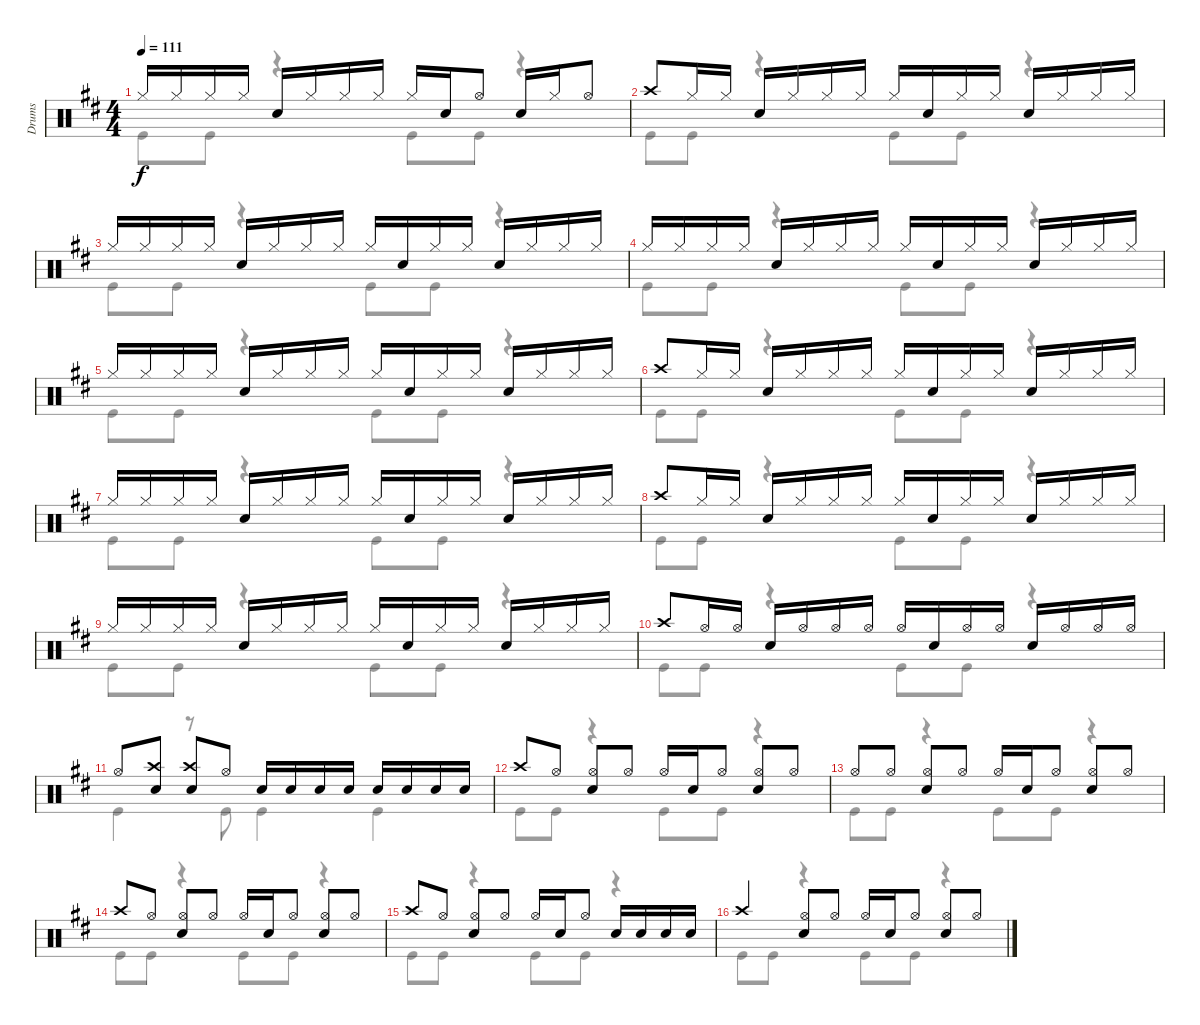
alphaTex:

\track ("Drums" "Drums") {instrument percussion}
\staff {score}
\articulation defaults
\voice
\ts (4 4)
\tempo 111
\clef neutral
\ks d "Hi-Hat (closed)".16{dy f beam Up} "Hi-Hat (closed)".16{beam Up} "Hi-Hat (closed)".16{beam Up} "Hi-Hat (closed)".16{beam Up} "Snare (hit) 2".16{beam Up} "Hi-Hat (closed)".16{beam Up} "Hi-Hat (closed)".16{beam Up} "Hi-Hat (closed)".16{beam Up} "Hi-Hat (closed)".16{beam Up} "Snare (hit) 2".16{beam Up} "Hi-Hat (open)".8{beam Up} "Snare (hit) 2".16{beam Up} "Hi-Hat (closed)".16{beam Up} "Hi-Hat (open)".8{beam Up}
|
"Crash high (hit)".8{beam Up} "Hi-Hat (closed)".16{beam Up} "Hi-Hat (closed)".16{beam Up} "Snare (hit) 2".16{beam Up} "Hi-Hat (closed)".16{beam Up} "Hi-Hat (closed)".16{beam Up} "Hi-Hat (closed)".16{beam Up} "Hi-Hat (closed)".16{beam Up} "Snare (hit) 2".16{beam Up} "Hi-Hat (closed)".16{beam Up} "Hi-Hat (closed)".16{beam Up} "Snare (hit) 2".16{beam Up} "Hi-Hat (closed)".16{beam Up} "Hi-Hat (closed)".16{beam Up} "Hi-Hat (closed)".16{beam Up} |
"Hi-Hat (closed)".16{beam Up} "Hi-Hat (closed)".16{beam Up} "Hi-Hat (closed)".16{beam Up} "Hi-Hat (closed)".16{beam Up} "Snare (hit) 2".16{beam Up} "Hi-Hat (closed)".16{beam Up} "Hi-Hat (closed)".16{beam Up} "Hi-Hat (closed)".16{beam Up} "Hi-Hat (closed)".16{beam Up} "Snare (hit) 2".16{beam Up} "Hi-Hat (closed)".16{beam Up} "Hi-Hat (closed)".16{beam Up} "Snare (hit) 2".16{beam Up} "Hi-Hat (closed)".16{beam Up} "Hi-Hat (closed)".16{beam Up} "Hi-Hat (closed)".16{beam Up} |
"Hi-Hat (closed)".16{beam Up} "Hi-Hat (closed)".16{beam Up} "Hi-Hat (closed)".16{beam Up} "Hi-Hat (closed)".16{beam Up} "Snare (hit) 2".16{beam Up} "Hi-Hat (closed)".16{beam Up} "Hi-Hat (closed)".16{beam Up} "Hi-Hat (closed)".16{beam Up} "Hi-Hat (closed)".16{beam Up} "Snare (hit) 2".16{beam Up} "Hi-Hat (closed)".16{beam Up} "Hi-Hat (closed)".16{beam Up} "Snare (hit) 2".16{beam Up} "Hi-Hat (closed)".16{beam Up} "Hi-Hat (closed)".16{beam Up} "Hi-Hat (closed)".16{beam Up} |
"Hi-Hat (closed)".16{beam Up} "Hi-Hat (closed)".16{beam Up} "Hi-Hat (closed)".16{beam Up} "Hi-Hat (closed)".16{beam Up} "Snare (hit) 2".16{beam Up} "Hi-Hat (closed)".16{beam Up} "Hi-Hat (closed)".16{beam Up} "Hi-Hat (closed)".16{beam Up} "Hi-Hat (closed)".16{beam Up} "Snare (hit) 2".16{beam Up} "Hi-Hat (closed)".16{beam Up} "Hi-Hat (closed)".16{beam Up} "Snare (hit) 2".16{beam Up} "Hi-Hat (closed)".16{beam Up} "Hi-Hat (closed)".16{beam Up} "Hi-Hat (closed)".16{beam Up} |
"Crash high (hit)".8{beam Up} "Hi-Hat (closed)".16{beam Up} "Hi-Hat (closed)".16{beam Up} "Snare (hit) 2".16{beam Up} "Hi-Hat (closed)".16{beam Up} "Hi-Hat (closed)".16{beam Up} "Hi-Hat (closed)".16{beam Up} "Hi-Hat (closed)".16{beam Up} "Snare (hit) 2".16{beam Up} "Hi-Hat (closed)".16{beam Up} "Hi-Hat (closed)".16{beam Up} "Snare (hit) 2".16{beam Up} "Hi-Hat (closed)".16{beam Up} "Hi-Hat (closed)".16{beam Up} "Hi-Hat (closed)".16{beam Up} |
"Hi-Hat (closed)".16{beam Up} "Hi-Hat (closed)".16{beam Up} "Hi-Hat (closed)".16{beam Up} "Hi-Hat (closed)".16{beam Up} "Snare (hit) 2".16{beam Up} "Hi-Hat (closed)".16{beam Up} "Hi-Hat (closed)".16{beam Up} "Hi-Hat (closed)".16{beam Up} "Hi-Hat (closed)".16{beam Up} "Snare (hit) 2".16{beam Up} "Hi-Hat (closed)".16{beam Up} "Hi-Hat (closed)".16{beam Up} "Snare (hit) 2".16{beam Up} "Hi-Hat (closed)".16{beam Up} "Hi-Hat (closed)".16{beam Up} "Hi-Hat (closed)".16{beam Up} |
"Crash high (hit)".8{beam Up} "Hi-Hat (closed)".16{beam Up} "Hi-Hat (closed)".16{beam Up} "Snare (hit) 2".16{beam Up} "Hi-Hat (closed)".16{beam Up} "Hi-Hat (closed)".16{beam Up} "Hi-Hat (closed)".16{beam Up} "Hi-Hat (closed)".16{beam Up} "Snare (hit) 2".16{beam Up} "Hi-Hat (closed)".16{beam Up} "Hi-Hat (closed)".16{beam Up} "Snare (hit) 2".16{beam Up} "Hi-Hat (closed)".16{beam Up} "Hi-Hat (closed)".16{beam Up} "Hi-Hat (closed)".16{beam Up} |
"Hi-Hat (closed)".16{beam Up} "Hi-Hat (closed)".16{beam Up} "Hi-Hat (closed)".16{beam Up} "Hi-Hat (closed)".16{beam Up} "Snare (hit) 2".16{beam Up} "Hi-Hat (closed)".16{beam Up} "Hi-Hat (closed)".16{beam Up} "Hi-Hat (closed)".16{beam Up} "Hi-Hat (closed)".16{beam Up} "Snare (hit) 2".16{beam Up} "Hi-Hat (closed)".16{beam Up} "Hi-Hat (closed)".16{beam Up} "Snare (hit) 2".16{beam Up} "Hi-Hat (closed)".16{beam Up} "Hi-Hat (closed)".16{beam Up} "Hi-Hat (closed)".16{beam Up} |
"Crash high (hit)".8{beam Up} "Hi-Hat (open)".16{beam Up} "Hi-Hat (open)".16{beam Up} "Snare (hit) 2".16{beam Up} "Hi-Hat (open)".16{beam Up} "Hi-Hat (open)".16{beam Up} "Hi-Hat (open)".16{beam Up} "Hi-Hat (open)".16{beam Up} "Snare (hit) 2".16{beam Up} "Hi-Hat (open)".16{beam Up} "Hi-Hat (open)".16{beam Up} "Snare (hit) 2".16{beam Up} "Hi-Hat (open)".16{beam Up} "Hi-Hat (open)".16{beam Up} "Hi-Hat (open)".16{beam Up} |
"Hi-Hat (open)".8{beam Up} ("Snare (hit) 2" "Crash high (hit)").8{beam Up} ("Crash high (hit)" "Snare (hit) 2").8{beam Up} "Hi-Hat (open)".8{beam Up} "Snare (hit) 2".16{beam Up} "Snare (hit) 2".16{beam Up} "Snare (hit) 2".16{beam Up} "Snare (hit) 2".16{beam Up} "Snare (hit) 2".16{beam Up} "Snare (hit) 2".16{beam Up} "Snare (hit) 2".16{beam Up} "Snare (hit) 2".16{beam Up} |
"Crash high (hit)".8{beam Up} "Hi-Hat (open)".8{beam Up} ("Snare (hit) 2" "Hi-Hat (open)").8{beam Up} "Hi-Hat (open)".8{beam Up} "Hi-Hat (open)".16{beam Up} "Snare (hit) 2".16{beam Up} "Hi-Hat (open)".8{beam Up} ("Hi-Hat (open)" "Snare (hit) 2").8{beam Up} "Hi-Hat (open)".8{beam Up} |
"Hi-Hat (open)".8{beam Up} "Hi-Hat (open)".8{beam Up} ("Snare (hit) 2" "Hi-Hat (open)").8{beam Up} "Hi-Hat (open)".8{beam Up} "Hi-Hat (open)".16{beam Up} "Snare (hit) 2".16{beam Up} "Hi-Hat (open)".8{beam Up} ("Hi-Hat (open)" "Snare (hit) 2").8{beam Up} "Hi-Hat (open)".8{beam Up} |
"Crash high (hit)".8{beam Up} "Hi-Hat (open)".8{beam Up} ("Snare (hit) 2" "Hi-Hat (open)").8{beam Up} "Hi-Hat (open)".8{beam Up} "Hi-Hat (open)".16{beam Up} "Snare (hit) 2".16{beam Up} "Hi-Hat (open)".8{beam Up} ("Hi-Hat (open)" "Snare (hit) 2").8{beam Up} "Hi-Hat (open)".8{beam Up} |
"Crash high (hit)".8{beam Up} "Hi-Hat (open)".8{beam Up} ("Snare (hit) 2" "Hi-Hat (open)").8{beam Up} "Hi-Hat (open)".8{beam Up} "Hi-Hat (open)".16{beam Up} "Snare (hit) 2".16{beam Up} "Hi-Hat (open)".8{beam Up} "Snare (hit) 2".16{beam Up} "Snare (hit) 2".16{beam Up} "Snare (hit) 2".16{beam Up} "Snare (hit) 2".16{beam Up} |
"Crash high (hit)".4{beam Up} ("Snare (hit) 2" "Hi-Hat (open)").8{beam Up} "Hi-Hat (open)".8{beam Up} "Hi-Hat (open)".16{beam Up} "Snare (hit) 2".16{beam Up} "Hi-Hat (open)".8{beam Up} ("Hi-Hat (open)" "Snare (hit) 2").8{beam Up} "Hi-Hat (open)".8{beam Up}
\voice
\clef neutral
\ottava regular
\simile none
\ks d "Kick (hit)".8{dy f} "Kick (hit)".8
r.4 "Kick (hit)".8 "Kick (hit)".8 r.4 |
"Kick (hit)".8 "Kick (hit)".8 r.4 "Kick (hit)".8 "Kick (hit)".8 r.4 |
"Kick (hit)".8 "Kick (hit)".8 r.4 "Kick (hit)".8 "Kick (hit)".8 r.4 |
"Kick (hit)".8 "Kick (hit)".8 r.4 "Kick (hit)".8 "Kick (hit)".8 r.4 |
"Kick (hit)".8 "Kick (hit)".8 r.4 "Kick (hit)".8 "Kick (hit)".8 r.4 |
"Kick (hit)".8 "Kick (hit)".8 r.4 "Kick (hit)".8 "Kick (hit)".8 r.4 |
"Kick (hit)".8 "Kick (hit)".8 r.4 "Kick (hit)".8 "Kick (hit)".8 r.4 |
"Kick (hit)".8 "Kick (hit)".8 r.4 "Kick (hit)".8 "Kick (hit)".8 r.4 |
"Kick (hit)".8 "Kick (hit)".8 r.4 "Kick (hit)".8 "Kick (hit)".8 r.4 |
"Kick (hit)".8 "Kick (hit)".8 r.4 "Kick (hit)".8 "Kick (hit)".8 r.4 |
"Kick (hit)".4 r.8 "Kick (hit)".8 "Kick (hit)".4 "Kick (hit)".4 |
"Kick (hit)".8 "Kick (hit)".8 r.4 "Kick (hit)".8 "Kick (hit)".8 r.4 |
"Kick (hit)".8 "Kick (hit)".8 r.4 "Kick (hit)".8 "Kick (hit)".8 r.4 |
"Kick (hit)".8 "Kick (hit)".8 r.4 "Kick (hit)".8 "Kick (hit)".8 r.4 |
"Kick (hit)".8 "Kick (hit)".8 r.4 "Kick (hit)".8 "Kick (hit)".8 r.4 |
"Kick (hit)".8 "Kick (hit)".8 r.4 "Kick (hit)".8 "Kick (hit)".8 r.4
